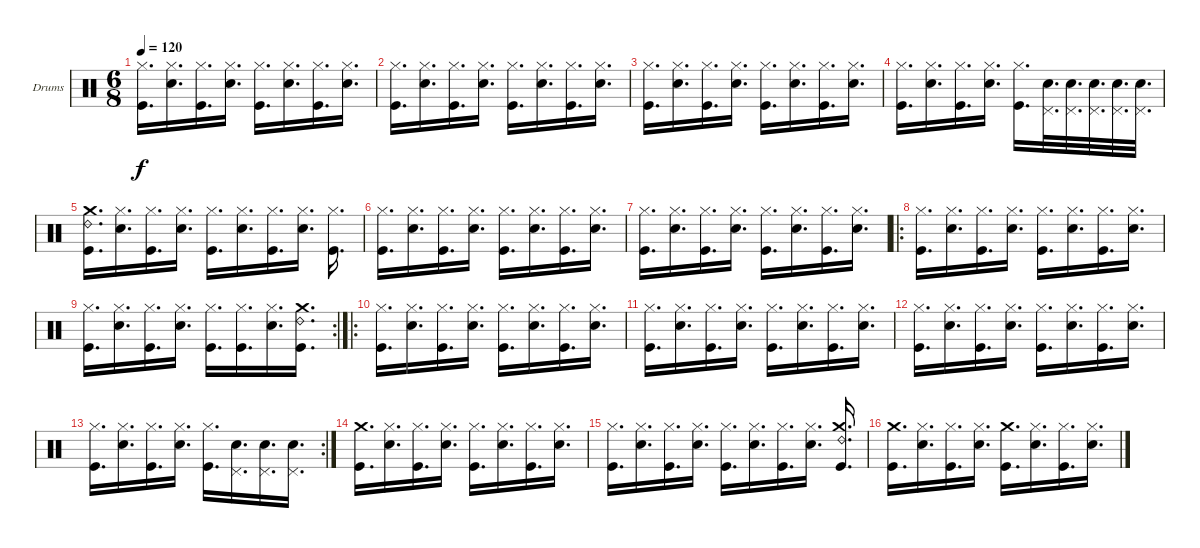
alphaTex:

\defaultSystemsLayout 4
\bracketExtendMode groupsimilarinstruments
\firstSystemTrackNameOrientation horizontal
\otherSystemsTrackNameOrientation horizontal
\track ("Drumkit" "Drums") {instrument percussion}
\staff {score}
\articulation defaults
\ts (6 8)
\tempo 120
\clef neutral
\ks c
("Kick (hit)" "Hi-Hat (closed)").16{d dy f} ("Snare (hit) 2" "Hi-Hat (closed)").16{d} ("Kick (hit)" "Hi-Hat (closed)").16{d} ("Snare (hit) 2" "Hi-Hat (closed)").16{d} ("Kick (hit)" "Hi-Hat (closed)").16{d} ("Snare (hit) 2" "Hi-Hat (closed)").16{d} ("Kick (hit)" "Hi-Hat (closed)").16{d} ("Snare (hit) 2" "Hi-Hat (closed)").16{d} |
("Kick (hit)" "Hi-Hat (closed)").16{d} ("Snare (hit) 2" "Hi-Hat (closed)").16{d} ("Kick (hit)" "Hi-Hat (closed)").16{d} ("Snare (hit) 2" "Hi-Hat (closed)").16{d} ("Kick (hit)" "Hi-Hat (closed)").16{d} ("Snare (hit) 2" "Hi-Hat (closed)").16{d} ("Kick (hit)" "Hi-Hat (closed)").16{d} ("Snare (hit) 2" "Hi-Hat (closed)").16{d} |
("Kick (hit)" "Hi-Hat (closed)").16{d} ("Snare (hit) 2" "Hi-Hat (closed)").16{d} ("Kick (hit)" "Hi-Hat (closed)").16{d} ("Snare (hit) 2" "Hi-Hat (closed)").16{d} ("Kick (hit)" "Hi-Hat (closed)").16{d} ("Snare (hit) 2" "Hi-Hat (closed)").16{d} ("Kick (hit)" "Hi-Hat (closed)").16{d} ("Snare (hit) 2" "Hi-Hat (closed)").16{d} |
("Kick (hit)" "Hi-Hat (closed)").16{d} ("Snare (hit) 2" "Hi-Hat (closed)").16{d} ("Kick (hit)" "Hi-Hat (closed)").16{d} ("Snare (hit) 2" "Hi-Hat (closed)").16{d} ("Kick (hit)" "Hi-Hat (closed)").16{d} ("Pedal Hi-Hat (hit)" "Snare (hit) 2").32{d} ("Pedal Hi-Hat (hit)" "Snare (hit) 2").32{d} ("Pedal Hi-Hat (hit)" "Snare (hit) 2").32{d} ("Pedal Hi-Hat (hit)" "Snare (hit) 2").32{d} ("Pedal Hi-Hat (hit)" "Snare (hit) 2").32{d} |
("Kick (hit)" "Crash medium (hit)" "Ride (bell) 2").16{d} ("Snare (hit) 2" "Hi-Hat (closed)").16{d} ("Kick (hit)" "Hi-Hat (closed)").16{d} ("Snare (hit) 2" "Hi-Hat (closed)").16{d} ("Kick (hit)" "Hi-Hat (closed)").16{d} ("Snare (hit) 2" "Hi-Hat (closed)").16{d} ("Kick (hit)" "Hi-Hat (closed)").16{d} ("Snare (hit) 2" "Hi-Hat (closed)").16{d} ("Kick (hit)" "Hi-Hat (closed)").16{d} |
("Kick (hit)" "Hi-Hat (closed)").16{d} ("Snare (hit) 2" "Hi-Hat (closed)").16{d} ("Kick (hit)" "Hi-Hat (closed)").16{d} ("Snare (hit) 2" "Hi-Hat (closed)").16{d} ("Kick (hit)" "Hi-Hat (closed)").16{d} ("Snare (hit) 2" "Hi-Hat (closed)").16{d} ("Kick (hit)" "Hi-Hat (closed)").16{d} ("Snare (hit) 2" "Hi-Hat (closed)").16{d} |
("Kick (hit)" "Hi-Hat (closed)").16{d} ("Snare (hit) 2" "Hi-Hat (closed)").16{d} ("Kick (hit)" "Hi-Hat (closed)").16{d} ("Snare (hit) 2" "Hi-Hat (closed)").16{d} ("Kick (hit)" "Hi-Hat (closed)").16{d} ("Snare (hit) 2" "Hi-Hat (closed)").16{d} ("Kick (hit)" "Hi-Hat (closed)").16{d} ("Snare (hit) 2" "Hi-Hat (closed)").16{d} |
\ro
("Kick (hit)" "Hi-Hat (closed)").16{d} ("Snare (hit) 2" "Hi-Hat (closed)").16{d} ("Kick (hit)" "Hi-Hat (closed)").16{d} ("Snare (hit) 2" "Hi-Hat (closed)").16{d} ("Kick (hit)" "Hi-Hat (closed)").16{d} ("Snare (hit) 2" "Hi-Hat (closed)").16{d} ("Kick (hit)" "Hi-Hat (closed)").16{d} ("Snare (hit) 2" "Hi-Hat (closed)").16{d} |
\rc 2
("Kick (hit)" "Hi-Hat (closed)").16{d} ("Snare (hit) 2" "Hi-Hat (closed)").16{d} ("Kick (hit)" "Hi-Hat (closed)").16{d} ("Snare (hit) 2" "Hi-Hat (closed)").16{d} ("Kick (hit)" "Hi-Hat (closed)").16{d} ("Kick (hit)" "Hi-Hat (closed)").16{d} ("Snare (hit) 2" "Hi-Hat (closed)").16{d} ("Kick (hit)" "Crash medium (hit)" "Ride (bell) 2").16{d} |
\ro
("Kick (hit)" "Hi-Hat (closed)").16{d} ("Snare (hit) 2" "Hi-Hat (closed)").16{d} ("Kick (hit)" "Hi-Hat (closed)").16{d} ("Snare (hit) 2" "Hi-Hat (closed)").16{d} ("Kick (hit)" "Hi-Hat (closed)").16{d} ("Snare (hit) 2" "Hi-Hat (closed)").16{d} ("Kick (hit)" "Hi-Hat (closed)").16{d} ("Snare (hit) 2" "Hi-Hat (closed)").16{d} |
("Kick (hit)" "Hi-Hat (closed)").16{d} ("Snare (hit) 2" "Hi-Hat (closed)").16{d} ("Kick (hit)" "Hi-Hat (closed)").16{d} ("Snare (hit) 2" "Hi-Hat (closed)").16{d} ("Kick (hit)" "Hi-Hat (closed)").16{d} ("Snare (hit) 2" "Hi-Hat (closed)").16{d} ("Kick (hit)" "Hi-Hat (closed)").16{d} ("Snare (hit) 2" "Hi-Hat (closed)").16{d} |
("Kick (hit)" "Hi-Hat (closed)").16{d} ("Snare (hit) 2" "Hi-Hat (closed)").16{d} ("Kick (hit)" "Hi-Hat (closed)").16{d} ("Snare (hit) 2" "Hi-Hat (closed)").16{d} ("Kick (hit)" "Hi-Hat (closed)").16{d} ("Snare (hit) 2" "Hi-Hat (closed)").16{d} ("Kick (hit)" "Hi-Hat (closed)").16{d} ("Snare (hit) 2" "Hi-Hat (closed)").16{d} |
\rc 2
("Kick (hit)" "Hi-Hat (closed)").16{d} ("Snare (hit) 2" "Hi-Hat (closed)").16{d} ("Kick (hit)" "Hi-Hat (closed)").16{d} ("Snare (hit) 2" "Hi-Hat (closed)").16{d} ("Kick (hit)" "Hi-Hat (closed)").16{d} ("Pedal Hi-Hat (hit)" "Snare (hit) 2").16{d} ("Pedal Hi-Hat (hit)" "Snare (hit) 2").16{d} ("Pedal Hi-Hat (hit)" "Snare (hit) 2").16{d} |
("Kick (hit)" "Crash medium (hit)").16{d} ("Snare (hit) 2" "Hi-Hat (closed)").16{d} ("Kick (hit)" "Hi-Hat (closed)").16{d} ("Snare (hit) 2" "Hi-Hat (closed)").16{d} ("Kick (hit)" "Hi-Hat (closed)").16{d} ("Snare (hit) 2" "Hi-Hat (closed)").16{d} ("Kick (hit)" "Hi-Hat (closed)").16{d} ("Snare (hit) 2" "Hi-Hat (closed)").16{d} |
("Kick (hit)" "Hi-Hat (closed)").16{d} ("Snare (hit) 2" "Hi-Hat (closed)").16{d} ("Kick (hit)" "Hi-Hat (closed)").16{d} ("Snare (hit) 2" "Hi-Hat (closed)").16{d} ("Kick (hit)" "Hi-Hat (closed)").16{d} ("Snare (hit) 2" "Hi-Hat (closed)").16{d} ("Kick (hit)" "Hi-Hat (closed)").16{d} ("Snare (hit) 2" "Hi-Hat (closed)").16{d} ("Kick (hit)" "Crash medium (hit)" "Ride (bell) 2").16{d} |
("Kick (hit)" "Crash medium (hit)").16{d} ("Snare (hit) 2" "Hi-Hat (closed)").16{d} ("Kick (hit)" "Hi-Hat (closed)").16{d} ("Snare (hit) 2" "Hi-Hat (closed)").16{d} ("Kick (hit)" "Crash medium (hit)").16{d} ("Snare (hit) 2" "Hi-Hat (closed)").16{d} ("Kick (hit)" "Hi-Hat (closed)").16{d} ("Snare (hit) 2" "Hi-Hat (closed)").16{d}
